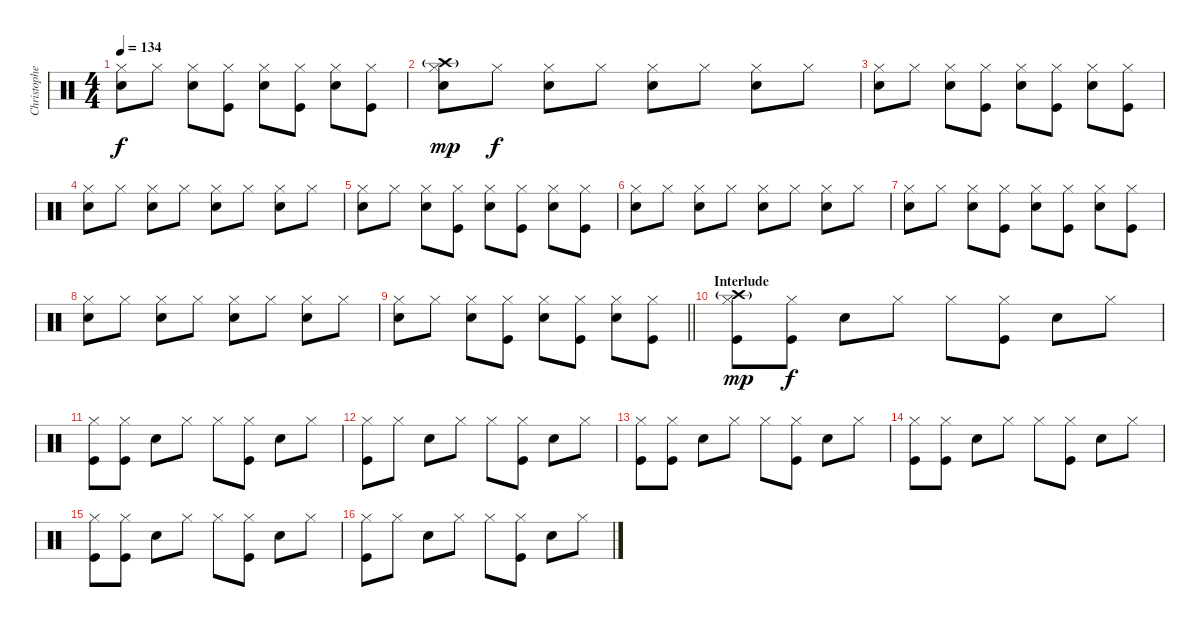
\track ("Christopher - Drums" "Christophe") {instrument percussion}
\staff {score}
\articulation defaults
\ts (4 4)
\tempo 134
\clef neutral
\ks c
("Hi-Hat (closed)" "Snare (hit) 2").8{dy f} "Hi-Hat (closed)".8 ("Hi-Hat (closed)" "Snare (hit) 2").8 ("Hi-Hat (closed)" "Kick (hit)").8 ("Hi-Hat (closed)" "Snare (hit) 2").8 ("Hi-Hat (closed)" "Kick (hit)").8 ("Hi-Hat (closed)" "Snare (hit) 2").8 ("Hi-Hat (closed)" "Kick (hit)").8 |
("Crash high (hit)"{g} "Hi-Hat (closed)" "Snare (hit) 2").8{dy mp} "Hi-Hat (closed)".8{dy f} ("Hi-Hat (closed)" "Snare (hit) 2").8 "Hi-Hat (closed)".8 ("Hi-Hat (closed)" "Snare (hit) 2").8 "Hi-Hat (closed)".8 ("Hi-Hat (closed)" "Snare (hit) 2").8 "Hi-Hat (closed)".8 |
("Hi-Hat (closed)" "Snare (hit) 2").8 "Hi-Hat (closed)".8 ("Hi-Hat (closed)" "Snare (hit) 2").8 ("Hi-Hat (closed)" "Kick (hit)").8 ("Hi-Hat (closed)" "Snare (hit) 2").8 ("Hi-Hat (closed)" "Kick (hit)").8 ("Hi-Hat (closed)" "Snare (hit) 2").8 ("Hi-Hat (closed)" "Kick (hit)").8 |
("Hi-Hat (closed)" "Snare (hit) 2").8 "Hi-Hat (closed)".8 ("Hi-Hat (closed)" "Snare (hit) 2").8 "Hi-Hat (closed)".8 ("Hi-Hat (closed)" "Snare (hit) 2").8 "Hi-Hat (closed)".8 ("Hi-Hat (closed)" "Snare (hit) 2").8 "Hi-Hat (closed)".8 |
("Hi-Hat (closed)" "Snare (hit) 2").8 "Hi-Hat (closed)".8 ("Hi-Hat (closed)" "Snare (hit) 2").8 ("Hi-Hat (closed)" "Kick (hit)").8 ("Hi-Hat (closed)" "Snare (hit) 2").8 ("Hi-Hat (closed)" "Kick (hit)").8 ("Hi-Hat (closed)" "Snare (hit) 2").8 ("Hi-Hat (closed)" "Kick (hit)").8 |
("Hi-Hat (closed)" "Snare (hit) 2").8 "Hi-Hat (closed)".8 ("Hi-Hat (closed)" "Snare (hit) 2").8 "Hi-Hat (closed)".8 ("Hi-Hat (closed)" "Snare (hit) 2").8 "Hi-Hat (closed)".8 ("Hi-Hat (closed)" "Snare (hit) 2").8 "Hi-Hat (closed)".8 |
("Hi-Hat (closed)" "Snare (hit) 2").8 "Hi-Hat (closed)".8 ("Hi-Hat (closed)" "Snare (hit) 2").8 ("Hi-Hat (closed)" "Kick (hit)").8 ("Hi-Hat (closed)" "Snare (hit) 2").8 ("Hi-Hat (closed)" "Kick (hit)").8 ("Hi-Hat (closed)" "Snare (hit) 2").8 ("Hi-Hat (closed)" "Kick (hit)").8 |
("Hi-Hat (closed)" "Snare (hit) 2").8 "Hi-Hat (closed)".8 ("Hi-Hat (closed)" "Snare (hit) 2").8 "Hi-Hat (closed)".8 ("Hi-Hat (closed)" "Snare (hit) 2").8 "Hi-Hat (closed)".8 ("Hi-Hat (closed)" "Snare (hit) 2").8 "Hi-Hat (closed)".8 |
\barLineRight lightlight
("Hi-Hat (closed)" "Snare (hit) 2").8 "Hi-Hat (closed)".8 ("Hi-Hat (closed)" "Snare (hit) 2").8 ("Hi-Hat (closed)" "Kick (hit)").8 ("Hi-Hat (closed)" "Snare (hit) 2").8 ("Hi-Hat (closed)" "Kick (hit)").8 ("Hi-Hat (closed)" "Snare (hit) 2").8 ("Hi-Hat (closed)" "Kick (hit)").8 |
\section ("" "Interlude")
("Crash high (hit)"{g} "Hi-Hat (closed)" "Kick (hit)").8{dy mp} ("Hi-Hat (closed)" "Kick (hit)").8{dy f} "Snare (hit) 2".8 "Hi-Hat (closed)".8 "Hi-Hat (closed)".8 ("Hi-Hat (closed)" "Kick (hit)").8 "Snare (hit) 2".8 "Hi-Hat (closed)".8 |
("Hi-Hat (closed)" "Kick (hit)").8 ("Hi-Hat (closed)" "Kick (hit)").8 "Snare (hit) 2".8 "Hi-Hat (closed)".8 "Hi-Hat (closed)".8 ("Hi-Hat (closed)" "Kick (hit)").8 "Snare (hit) 2".8 "Hi-Hat (closed)".8 |
("Hi-Hat (closed)" "Kick (hit)").8 "Hi-Hat (closed)".8 "Snare (hit) 2".8 "Hi-Hat (closed)".8 "Hi-Hat (closed)".8 ("Hi-Hat (closed)" "Kick (hit)").8 "Snare (hit) 2".8 "Hi-Hat (closed)".8 |
("Hi-Hat (closed)" "Kick (hit)").8 ("Hi-Hat (closed)" "Kick (hit)").8 "Snare (hit) 2".8 "Hi-Hat (closed)".8 "Hi-Hat (closed)".8 ("Hi-Hat (closed)" "Kick (hit)").8 "Snare (hit) 2".8 "Hi-Hat (closed)".8 |
("Hi-Hat (closed)" "Kick (hit)").8 ("Hi-Hat (closed)" "Kick (hit)").8 "Snare (hit) 2".8 "Hi-Hat (closed)".8 "Hi-Hat (closed)".8 ("Hi-Hat (closed)" "Kick (hit)").8 "Snare (hit) 2".8 "Hi-Hat (closed)".8 |
("Hi-Hat (closed)" "Kick (hit)").8 ("Hi-Hat (closed)" "Kick (hit)").8 "Snare (hit) 2".8 "Hi-Hat (closed)".8 "Hi-Hat (closed)".8 ("Hi-Hat (closed)" "Kick (hit)").8 "Snare (hit) 2".8 "Hi-Hat (closed)".8 |
("Hi-Hat (closed)" "Kick (hit)").8 "Hi-Hat (closed)".8 "Snare (hit) 2".8 "Hi-Hat (closed)".8 "Hi-Hat (closed)".8 ("Hi-Hat (closed)" "Kick (hit)").8 "Snare (hit) 2".8 "Hi-Hat (closed)".8
